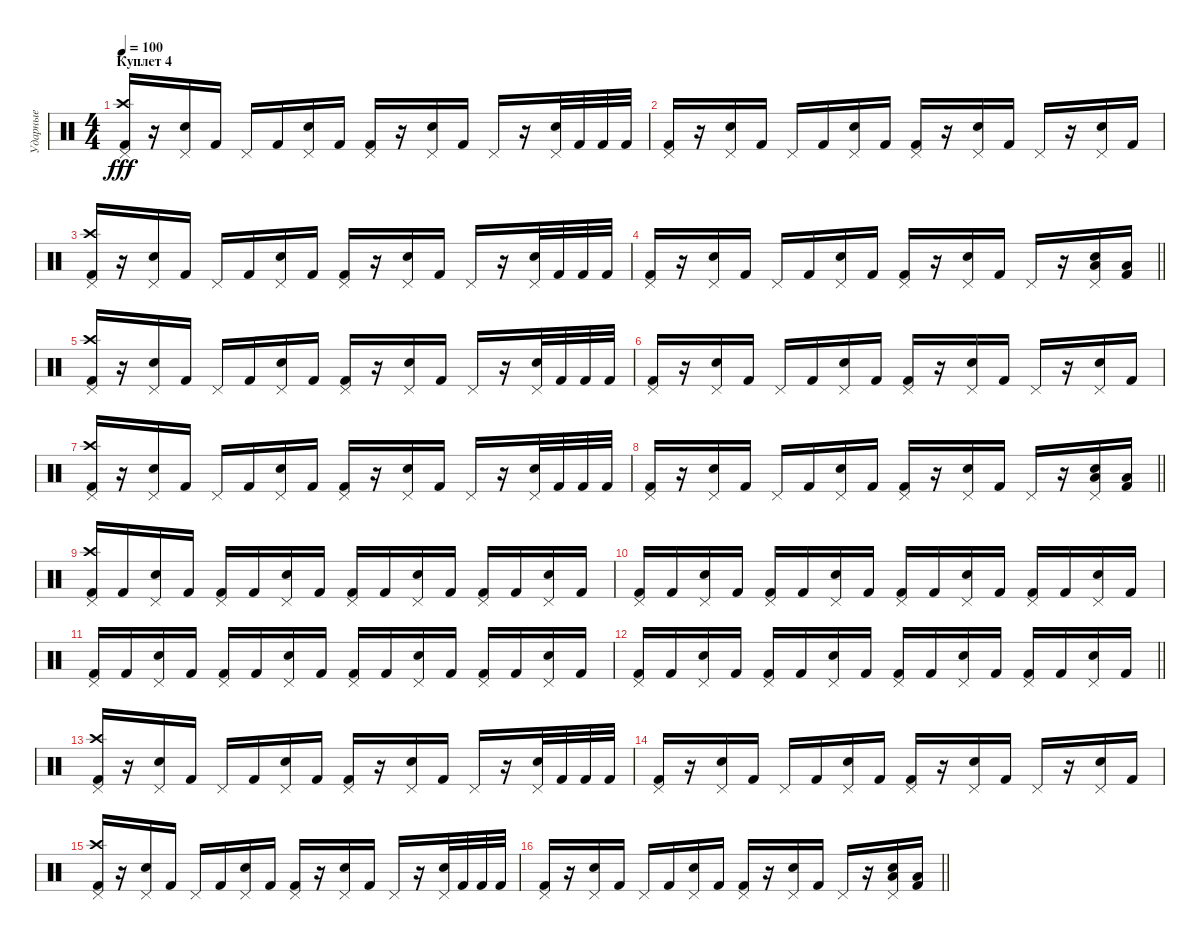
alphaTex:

\track ("Ударные" "Ударные") {instrument percussion}
\staff {score}
\articulation defaults
\ts (4 4)
\section ("" "Куплет 4")
\tempo 100
\clef neutral
\ks c
("Pedal Hi-Hat (hit)" "Crash high (hit)" "Kick (hit) 2").16{dy fff} r.16 ("Pedal Hi-Hat (hit)" "Snare (hit) 2").16 "Kick (hit) 2".16 "Pedal Hi-Hat (hit)".16 "Kick (hit) 2".16 ("Pedal Hi-Hat (hit)" "Snare (hit) 2").16 "Kick (hit) 2".16 ("Pedal Hi-Hat (hit)" "Kick (hit) 2").16 r.16 ("Pedal Hi-Hat (hit)" "Snare (hit) 2").16 "Kick (hit) 2".16 "Pedal Hi-Hat (hit)".16 r.16 ("Pedal Hi-Hat (hit)" "Snare (hit) 2").32 "Kick (hit) 2".32 "Kick (hit) 2".32 "Kick (hit) 2".32 |
("Pedal Hi-Hat (hit)" "Kick (hit) 2").16 r.16 ("Pedal Hi-Hat (hit)" "Snare (hit) 2").16 "Kick (hit) 2".16 "Pedal Hi-Hat (hit)".16 "Kick (hit) 2".16 ("Pedal Hi-Hat (hit)" "Snare (hit) 2").16 "Kick (hit) 2".16 ("Pedal Hi-Hat (hit)" "Kick (hit) 2").16 r.16 ("Pedal Hi-Hat (hit)" "Snare (hit) 2").16 "Kick (hit) 2".16 "Pedal Hi-Hat (hit)".16 r.16 ("Pedal Hi-Hat (hit)" "Snare (hit) 2").16 "Kick (hit) 2".16 |
("Pedal Hi-Hat (hit)" "Crash high (hit)" "Kick (hit) 2").16 r.16 ("Pedal Hi-Hat (hit)" "Snare (hit) 2").16 "Kick (hit) 2".16 "Pedal Hi-Hat (hit)".16 "Kick (hit) 2".16 ("Pedal Hi-Hat (hit)" "Snare (hit) 2").16 "Kick (hit) 2".16 ("Pedal Hi-Hat (hit)" "Kick (hit) 2").16 r.16 ("Pedal Hi-Hat (hit)" "Snare (hit) 2").16 "Kick (hit) 2".16 "Pedal Hi-Hat (hit)".16 r.16 ("Pedal Hi-Hat (hit)" "Snare (hit) 2").32 "Kick (hit) 2".32 "Kick (hit) 2".32 "Kick (hit) 2".32 |
\barLineRight lightlight
("Pedal Hi-Hat (hit)" "Kick (hit) 2").16 r.16 ("Pedal Hi-Hat (hit)" "Snare (hit) 2").16 "Kick (hit) 2".16 "Pedal Hi-Hat (hit)".16 "Kick (hit) 2".16 ("Pedal Hi-Hat (hit)" "Snare (hit) 2").16 "Kick (hit) 2".16 ("Pedal Hi-Hat (hit)" "Kick (hit) 2").16 r.16 ("Pedal Hi-Hat (hit)" "Snare (hit) 2").16 "Kick (hit) 2".16 "Pedal Hi-Hat (hit)".16 r.16 ("Pedal Hi-Hat (hit)" "Low Floor Tom (hit)" "Snare (hit) 2").16 ("Low Floor Tom (hit)" "Kick (hit) 2").16 |
("Pedal Hi-Hat (hit)" "Crash high (hit)" "Kick (hit) 2").16 r.16 ("Pedal Hi-Hat (hit)" "Snare (hit) 2").16 "Kick (hit) 2".16 "Pedal Hi-Hat (hit)".16 "Kick (hit) 2".16 ("Pedal Hi-Hat (hit)" "Snare (hit) 2").16 "Kick (hit) 2".16 ("Pedal Hi-Hat (hit)" "Kick (hit) 2").16 r.16 ("Pedal Hi-Hat (hit)" "Snare (hit) 2").16 "Kick (hit) 2".16 "Pedal Hi-Hat (hit)".16 r.16 ("Pedal Hi-Hat (hit)" "Snare (hit) 2").32 "Kick (hit) 2".32 "Kick (hit) 2".32 "Kick (hit) 2".32 |
("Pedal Hi-Hat (hit)" "Kick (hit) 2").16 r.16 ("Pedal Hi-Hat (hit)" "Snare (hit) 2").16 "Kick (hit) 2".16 "Pedal Hi-Hat (hit)".16 "Kick (hit) 2".16 ("Pedal Hi-Hat (hit)" "Snare (hit) 2").16 "Kick (hit) 2".16 ("Pedal Hi-Hat (hit)" "Kick (hit) 2").16 r.16 ("Pedal Hi-Hat (hit)" "Snare (hit) 2").16 "Kick (hit) 2".16 "Pedal Hi-Hat (hit)".16 r.16 ("Pedal Hi-Hat (hit)" "Snare (hit) 2").16 "Kick (hit) 2".16 |
("Pedal Hi-Hat (hit)" "Crash high (hit)" "Kick (hit) 2").16 r.16 ("Pedal Hi-Hat (hit)" "Snare (hit) 2").16 "Kick (hit) 2".16 "Pedal Hi-Hat (hit)".16 "Kick (hit) 2".16 ("Pedal Hi-Hat (hit)" "Snare (hit) 2").16 "Kick (hit) 2".16 ("Pedal Hi-Hat (hit)" "Kick (hit) 2").16 r.16 ("Pedal Hi-Hat (hit)" "Snare (hit) 2").16 "Kick (hit) 2".16 "Pedal Hi-Hat (hit)".16 r.16 ("Pedal Hi-Hat (hit)" "Snare (hit) 2").32 "Kick (hit) 2".32 "Kick (hit) 2".32 "Kick (hit) 2".32 |
\barLineRight lightlight
("Pedal Hi-Hat (hit)" "Kick (hit) 2").16 r.16 ("Pedal Hi-Hat (hit)" "Snare (hit) 2").16 "Kick (hit) 2".16 "Pedal Hi-Hat (hit)".16 "Kick (hit) 2".16 ("Pedal Hi-Hat (hit)" "Snare (hit) 2").16 "Kick (hit) 2".16 ("Pedal Hi-Hat (hit)" "Kick (hit) 2").16 r.16 ("Pedal Hi-Hat (hit)" "Snare (hit) 2").16 "Kick (hit) 2".16 "Pedal Hi-Hat (hit)".16 r.16 ("Pedal Hi-Hat (hit)" "Low Floor Tom (hit)" "Snare (hit) 2").16 ("Low Floor Tom (hit)" "Kick (hit) 2").16 |
("Kick (hit) 2" "Crash high (hit)" "Pedal Hi-Hat (hit)").16 "Kick (hit) 2".16 ("Snare (hit) 2" "Pedal Hi-Hat (hit)").16 "Kick (hit) 2".16 ("Kick (hit) 2" "Pedal Hi-Hat (hit)").16 "Kick (hit) 2".16 ("Snare (hit) 2" "Pedal Hi-Hat (hit)").16 "Kick (hit) 2".16 ("Kick (hit) 2" "Pedal Hi-Hat (hit)").16 "Kick (hit) 2".16 ("Snare (hit) 2" "Pedal Hi-Hat (hit)").16 "Kick (hit) 2".16 ("Kick (hit) 2" "Pedal Hi-Hat (hit)").16 "Kick (hit) 2".16 ("Snare (hit) 2" "Pedal Hi-Hat (hit)").16 "Kick (hit) 2".16 |
("Kick (hit) 2" "Pedal Hi-Hat (hit)").16 "Kick (hit) 2".16 ("Snare (hit) 2" "Pedal Hi-Hat (hit)").16 "Kick (hit) 2".16 ("Kick (hit) 2" "Pedal Hi-Hat (hit)").16 "Kick (hit) 2".16 ("Snare (hit) 2" "Pedal Hi-Hat (hit)").16 "Kick (hit) 2".16 ("Kick (hit) 2" "Pedal Hi-Hat (hit)").16 "Kick (hit) 2".16 ("Snare (hit) 2" "Pedal Hi-Hat (hit)").16 "Kick (hit) 2".16 ("Kick (hit) 2" "Pedal Hi-Hat (hit)").16 "Kick (hit) 2".16 ("Snare (hit) 2" "Pedal Hi-Hat (hit)").16 "Kick (hit) 2".16 |
("Kick (hit) 2" "Pedal Hi-Hat (hit)").16 "Kick (hit) 2".16 ("Snare (hit) 2" "Pedal Hi-Hat (hit)").16 "Kick (hit) 2".16 ("Kick (hit) 2" "Pedal Hi-Hat (hit)").16 "Kick (hit) 2".16 ("Snare (hit) 2" "Pedal Hi-Hat (hit)").16 "Kick (hit) 2".16 ("Kick (hit) 2" "Pedal Hi-Hat (hit)").16 "Kick (hit) 2".16 ("Snare (hit) 2" "Pedal Hi-Hat (hit)").16 "Kick (hit) 2".16 ("Kick (hit) 2" "Pedal Hi-Hat (hit)").16 "Kick (hit) 2".16 ("Snare (hit) 2" "Pedal Hi-Hat (hit)").16 "Kick (hit) 2".16 |
\barLineRight lightlight
("Kick (hit) 2" "Pedal Hi-Hat (hit)").16 "Kick (hit) 2".16 ("Snare (hit) 2" "Pedal Hi-Hat (hit)").16 "Kick (hit) 2".16 ("Kick (hit) 2" "Pedal Hi-Hat (hit)").16 "Kick (hit) 2".16 ("Snare (hit) 2" "Pedal Hi-Hat (hit)").16 "Kick (hit) 2".16 ("Kick (hit) 2" "Pedal Hi-Hat (hit)").16 "Kick (hit) 2".16 ("Snare (hit) 2" "Pedal Hi-Hat (hit)").16 "Kick (hit) 2".16 ("Kick (hit) 2" "Pedal Hi-Hat (hit)").16 "Kick (hit) 2".16 ("Snare (hit) 2" "Pedal Hi-Hat (hit)").16 "Kick (hit) 2".16 |
("Pedal Hi-Hat (hit)" "Crash high (hit)" "Kick (hit) 2").16 r.16 ("Pedal Hi-Hat (hit)" "Snare (hit) 2").16 "Kick (hit) 2".16 "Pedal Hi-Hat (hit)".16 "Kick (hit) 2".16 ("Pedal Hi-Hat (hit)" "Snare (hit) 2").16 "Kick (hit) 2".16 ("Pedal Hi-Hat (hit)" "Kick (hit) 2").16 r.16 ("Pedal Hi-Hat (hit)" "Snare (hit) 2").16 "Kick (hit) 2".16 "Pedal Hi-Hat (hit)".16 r.16 ("Pedal Hi-Hat (hit)" "Snare (hit) 2").32 "Kick (hit) 2".32 "Kick (hit) 2".32 "Kick (hit) 2".32 |
("Pedal Hi-Hat (hit)" "Kick (hit) 2").16 r.16 ("Pedal Hi-Hat (hit)" "Snare (hit) 2").16 "Kick (hit) 2".16 "Pedal Hi-Hat (hit)".16 "Kick (hit) 2".16 ("Pedal Hi-Hat (hit)" "Snare (hit) 2").16 "Kick (hit) 2".16 ("Pedal Hi-Hat (hit)" "Kick (hit) 2").16 r.16 ("Pedal Hi-Hat (hit)" "Snare (hit) 2").16 "Kick (hit) 2".16 "Pedal Hi-Hat (hit)".16 r.16 ("Pedal Hi-Hat (hit)" "Snare (hit) 2").16 "Kick (hit) 2".16 |
("Pedal Hi-Hat (hit)" "Crash high (hit)" "Kick (hit) 2").16 r.16 ("Pedal Hi-Hat (hit)" "Snare (hit) 2").16 "Kick (hit) 2".16 "Pedal Hi-Hat (hit)".16 "Kick (hit) 2".16 ("Pedal Hi-Hat (hit)" "Snare (hit) 2").16 "Kick (hit) 2".16 ("Pedal Hi-Hat (hit)" "Kick (hit) 2").16 r.16 ("Pedal Hi-Hat (hit)" "Snare (hit) 2").16 "Kick (hit) 2".16 "Pedal Hi-Hat (hit)".16 r.16 ("Pedal Hi-Hat (hit)" "Snare (hit) 2").32 "Kick (hit) 2".32 "Kick (hit) 2".32 "Kick (hit) 2".32 |
\barLineRight lightlight
("Pedal Hi-Hat (hit)" "Kick (hit) 2").16 r.16 ("Pedal Hi-Hat (hit)" "Snare (hit) 2").16 "Kick (hit) 2".16 "Pedal Hi-Hat (hit)".16 "Kick (hit) 2".16 ("Pedal Hi-Hat (hit)" "Snare (hit) 2").16 "Kick (hit) 2".16 ("Pedal Hi-Hat (hit)" "Kick (hit) 2").16 r.16 ("Pedal Hi-Hat (hit)" "Snare (hit) 2").16 "Kick (hit) 2".16 "Pedal Hi-Hat (hit)".16 r.16 ("Pedal Hi-Hat (hit)" "Low Floor Tom (hit)" "Snare (hit) 2").16 ("Low Floor Tom (hit)" "Kick (hit) 2").16
